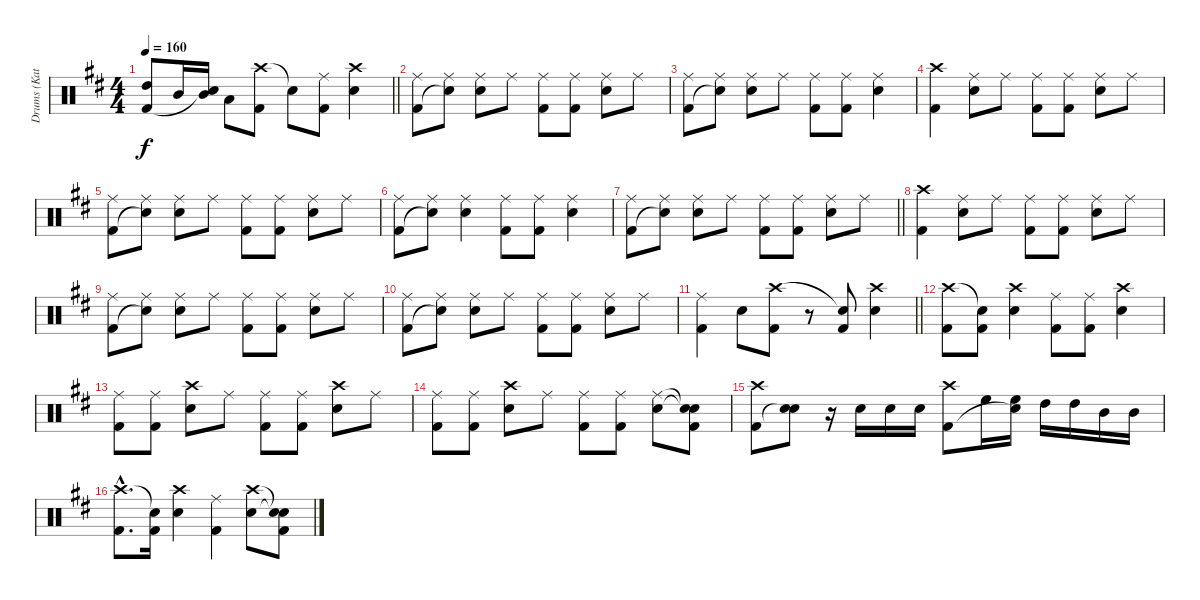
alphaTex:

\track ("Drums (Katsuji)" "Drums (Kat") {instrument percussion}
\staff {score}
\articulation defaults
\ts (4 4)
\tempo 160
\clef neutral
\barLineRight lightlight
\ks d
("High Tom (hit)" "Kick (hit) 2").8{dy f} "Mid Tom (hit)".16 ("Mid Tom (hit)" "Snare (hit)"{t}).16 "Low Tom (hit)".8 ("Crash high (hit)" "Kick (hit) 2").8 "Snare (hit)"{t}.8 ("Ride (middle)" "Kick (hit) 2").8 ("Crash high (hit)" "Snare (hit) 2").4 |
("Ride (middle)" "Kick (hit) 2").8 ("Ride (middle)" "Snare (hit)"{t}).8 ("Ride (middle)" "Snare (hit) 2").8 "Ride (middle)".8 ("Ride (middle)" "Kick (hit) 2").8 ("Ride (middle)" "Kick (hit) 2").8 ("Ride (middle)" "Snare (hit) 2").8 "Ride (middle)".8 |
("Ride (middle)" "Kick (hit) 2").8 ("Ride (middle)" "Snare (hit)"{t}).8 ("Ride (middle)" "Snare (hit) 2").8 "Ride (middle)".8 ("Ride (middle)" "Kick (hit) 2").8 ("Ride (middle)" "Kick (hit) 2").8 ("Ride (middle)" "Snare (hit) 2").4 |
("Crash high (hit)" "Kick (hit) 2").4 ("Ride (middle)" "Snare (hit) 2").8 "Ride (middle)".8 ("Ride (middle)" "Kick (hit) 2").8 ("Ride (middle)" "Kick (hit) 2").8 ("Ride (middle)" "Snare (hit) 2").8 "Ride (middle)".8 |
("Ride (middle)" "Kick (hit) 2").8 ("Ride (middle)" "Snare (hit)"{t}).8 ("Ride (middle)" "Snare (hit) 2").8 "Ride (middle)".8 ("Ride (middle)" "Kick (hit) 2").8 ("Ride (middle)" "Kick (hit) 2").8 ("Ride (middle)" "Snare (hit) 2").8 "Ride (middle)".8 |
("Ride (middle)" "Kick (hit) 2").8 ("Ride (middle)" "Snare (hit)"{t}).8 ("Ride (middle)" "Snare (hit) 2").4 ("Ride (middle)" "Kick (hit) 2").8 ("Ride (middle)" "Kick (hit) 2").8 ("Ride (middle)" "Snare (hit) 2").4 |
\barLineRight lightlight
("Ride (middle)" "Kick (hit) 2").8 ("Ride (middle)" "Snare (hit)"{t}).8 ("Ride (middle)" "Snare (hit) 2").8 "Ride (middle)".8 ("Ride (middle)" "Kick (hit) 2").8 ("Ride (middle)" "Kick (hit) 2").8 ("Ride (middle)" "Snare (hit) 2").8 "Ride (middle)".8 |
("Crash high (hit)" "Kick (hit) 2").4 ("Ride (middle)" "Snare (hit) 2").8 "Ride (middle)".8 ("Ride (middle)" "Kick (hit) 2").8 ("Ride (middle)" "Kick (hit) 2").8 ("Ride (middle)" "Snare (hit) 2").8 "Ride (middle)".8 |
("Ride (middle)" "Kick (hit) 2").8 ("Ride (middle)" "Snare (hit)"{t}).8 ("Ride (middle)" "Snare (hit) 2").8 "Ride (middle)".8 ("Ride (middle)" "Kick (hit) 2").8 ("Ride (middle)" "Kick (hit) 2").8 ("Ride (middle)" "Snare (hit) 2").8 "Ride (middle)".8 |
("Ride (middle)" "Kick (hit) 2").8 ("Ride (middle)" "Snare (hit)"{t}).8 ("Ride (middle)" "Snare (hit) 2").8 "Ride (middle)".8 ("Ride (middle)" "Kick (hit) 2").8 ("Ride (middle)" "Kick (hit) 2").8 ("Ride (middle)" "Snare (hit) 2").8 "Ride (middle)".8 |
\barLineRight lightlight
("Ride (middle)" "Kick (hit) 2").4 "Snare (hit) 2".8 ("Crash high (hit)" "Kick (hit) 2").8 r.8 ("Snare (hit)"{t} "Kick (hit) 2").8 ("Crash high (hit)" "Snare (hit) 2").4 |
("Crash high (hit)" "Kick (hit) 2").8 ("Snare (hit)"{t} "Kick (hit) 2").8 ("Crash high (hit)" "Snare (hit) 2").4 ("Ride (middle)" "Kick (hit) 2").8 ("Ride (middle)" "Kick (hit) 2").8 ("Crash high (hit)" "Snare (hit) 2").4 |
("Ride (middle)" "Kick (hit) 2").8 ("Ride (middle)" "Kick (hit) 2").8 ("Crash high (hit)" "Snare (hit) 2").8 "Ride (middle)".8 ("Ride (middle)" "Kick (hit) 2").8 ("Ride (middle)" "Kick (hit) 2").8 ("Crash high (hit)" "Snare (hit) 2").8 "Ride (middle)".8 |
("Ride (middle)" "Kick (hit) 2").8 ("Ride (middle)" "Kick (hit) 2").8 ("Crash high (hit)" "Snare (hit) 2").8 "Ride (middle)".8 ("Ride (middle)" "Kick (hit) 2").8 ("Ride (middle)" "Kick (hit) 2").8 ("Ride (middle)" "Snare (hit) 2").8 ("Snare (hit)"{t} "Snare (hit)"{t} "Kick (hit) 2").8 |
("Crash high (hit)" "Kick (hit) 2").8 ("Snare (hit) 2" "Snare (hit)"{t}).8 r.16 "Snare (hit) 2".16 "Snare (hit) 2".16 "Snare (hit) 2".16 ("Crash high (hit)" "Kick (hit) 2").8 "High Floor Tom (hit)".16 ("High Floor Tom (hit)" "Snare (hit)"{t}).16 "High Tom (hit)".16 "High Tom (hit)".16 "Mid Tom (hit)".16 "Mid Tom (hit)".16 |
("Crash high (hit)"{hac} "Kick (hit) 2"{hac}).8{d} ("Snare (hit)"{t} "Kick (hit) 2").16 ("Crash high (hit)" "Snare (hit) 2").4 ("Ride (middle)" "Kick (hit) 2").4 ("Crash high (hit)" "Snare (hit) 2").8 ("Snare (hit)"{t} "Snare (hit)"{t} "Kick (hit) 2").8
